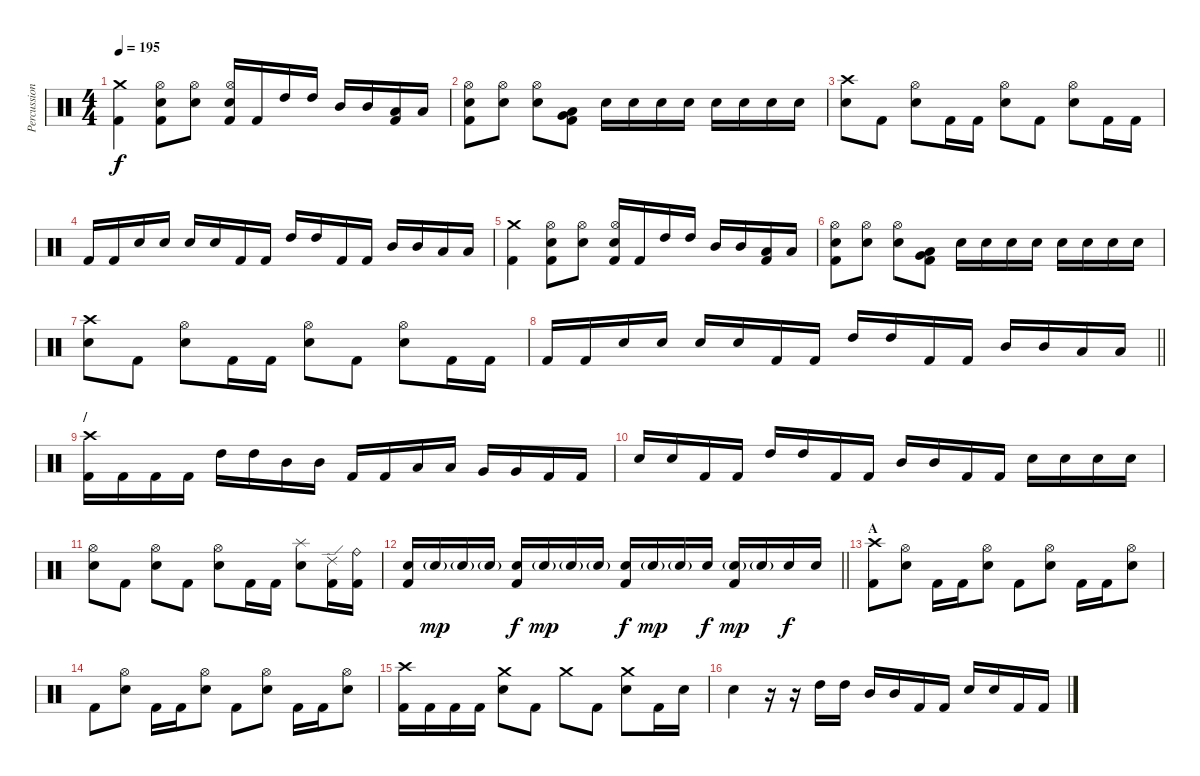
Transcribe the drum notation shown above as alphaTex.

\track ("Percussion" "Percussion") {instrument percussion}
\staff {score}
\articulation defaults
\ts (4 4)
\tempo 195
\clef neutral
\ks c
("Crash medium (hit)" "Kick (hit) 2").4{dy f} ("Hi-Hat (open)" "Electric Snare (hit)" "Kick (hit) 2").8 ("Hi-Hat (open)" "Electric Snare (hit)").8 ("Hi-Hat (open)" "Electric Snare (hit)" "Kick (hit) 2").16 "Kick (hit) 2".16 "High Tom (hit)".16 "High Tom (hit)".16 "Mid Tom (hit)".16 "Mid Tom (hit)".16 ("Low Tom (hit)" "Kick (hit) 2").16 "Low Tom (hit)".16 |
("Hi-Hat (open)" "Electric Snare (hit)" "Kick (hit) 2").8 ("Hi-Hat (open)" "Electric Snare (hit)").8 ("Hi-Hat (open)" "Electric Snare (hit)").8 ("Very Low Tom (hit)" "Low Floor Tom (hit)" "Kick (hit) 2").8 "Electric Snare (hit)".16 "Electric Snare (hit)".16 "Electric Snare (hit)".16 "Electric Snare (hit)".16 "Electric Snare (hit)".16 "Electric Snare (hit)".16 "Electric Snare (hit)".16 "Electric Snare (hit)".16 |
("Crash high (hit)" "Electric Snare (hit)").8 "Kick (hit) 2".8 ("Hi-Hat (open)" "Electric Snare (hit)").8 "Kick (hit) 2".16 "Kick (hit) 2".16 ("Hi-Hat (open)" "Electric Snare (hit)").8 "Kick (hit) 2".8 ("Hi-Hat (open)" "Electric Snare (hit)").8 "Kick (hit) 2".16 "Kick (hit) 2".16 |
"Kick (hit) 2".16 "Kick (hit) 2".16 "Electric Snare (hit)".16 "Electric Snare (hit)".16 "Electric Snare (hit)".16 "Electric Snare (hit)".16 "Kick (hit) 2".16 "Kick (hit) 2".16 "High Tom (hit)".16 "High Tom (hit)".16 "Kick (hit) 2".16 "Kick (hit) 2".16 "Mid Tom (hit)".16 "Mid Tom (hit)".16 "Low Tom (hit)".16 "Low Tom (hit)".16 |
("Crash medium (hit)" "Kick (hit) 2").4 ("Hi-Hat (open)" "Electric Snare (hit)" "Kick (hit) 2").8 ("Hi-Hat (open)" "Electric Snare (hit)").8 ("Hi-Hat (open)" "Electric Snare (hit)" "Kick (hit) 2").16 "Kick (hit) 2".16 "High Tom (hit)".16 "High Tom (hit)".16 "Mid Tom (hit)".16 "Mid Tom (hit)".16 ("Low Tom (hit)" "Kick (hit) 2").16 "Low Tom (hit)".16 |
("Hi-Hat (open)" "Electric Snare (hit)" "Kick (hit) 2").8 ("Hi-Hat (open)" "Electric Snare (hit)").8 ("Hi-Hat (open)" "Electric Snare (hit)").8 ("Very Low Tom (hit)" "Low Floor Tom (hit)" "Kick (hit) 2").8 "Electric Snare (hit)".16 "Electric Snare (hit)".16 "Electric Snare (hit)".16 "Electric Snare (hit)".16 "Electric Snare (hit)".16 "Electric Snare (hit)".16 "Electric Snare (hit)".16 "Electric Snare (hit)".16 |
("Crash high (hit)" "Electric Snare (hit)").8 "Kick (hit) 2".8 ("Hi-Hat (open)" "Electric Snare (hit)").8 "Kick (hit) 2".16 "Kick (hit) 2".16 ("Hi-Hat (open)" "Electric Snare (hit)").8 "Kick (hit) 2".8 ("Hi-Hat (open)" "Electric Snare (hit)").8 "Kick (hit) 2".16 "Kick (hit) 2".16 |
\barLineRight lightlight "Kick (hit) 2".16 "Kick (hit) 2".16 "Electric Snare (hit)".16 "Electric Snare (hit)".16 "Electric Snare (hit)".16 "Electric Snare (hit)".16 "Kick (hit) 2".16 "Kick (hit) 2".16 "High Tom (hit)".16 "High Tom (hit)".16 "Kick (hit) 2".16 "Kick (hit) 2".16 "Mid Tom (hit)".16 "Mid Tom (hit)".16 "Low Tom (hit)".16 "Low Tom (hit)".16
|
\section ("" "/")
("Crash high (hit)" "Kick (hit) 2").16 "Kick (hit) 2".16 "Kick (hit) 2".16 "Kick (hit) 2".16 "High Tom (hit)".16 "High Tom (hit)".16 "Mid Tom (hit)".16 "Mid Tom (hit)".16 "Kick (hit) 2".16 "Kick (hit) 2".16 "Low Tom (hit)".16 "Low Tom (hit)".16 "Very Low Tom (hit)".16 "Very Low Tom (hit)".16 "Kick (hit) 2".16 "Kick (hit) 2".16 |
"Electric Snare (hit)".16 "Electric Snare (hit)".16 "Kick (hit) 2".16 "Kick (hit) 2".16 "High Tom (hit)".16 "High Tom (hit)".16 "Kick (hit) 2".16 "Kick (hit) 2".16 "Mid Tom (hit)".16 "Mid Tom (hit)".16 "Kick (hit) 2".16 "Kick (hit) 2".16 "Electric Snare (hit)".16 "Electric Snare (hit)".16 "Electric Snare (hit)".16 "Electric Snare (hit)".16 |
("Hi-Hat (open)" "Electric Snare (hit)").8 "Kick (hit) 2".8 ("Hi-Hat (open)" "Electric Snare (hit)").8 "Kick (hit) 2".8 ("Hi-Hat (open)" "Electric Snare (hit)").8 "Kick (hit) 2".16 "Kick (hit) 2".16 ("Splash (hit)" "Electric Snare (hit)").8 ("Ride (edge) 2" "Kick (hit) 2").16 ("Ride (bell)" "Kick (hit) 2").16 |
\barLineRight lightlight
("Electric Snare (hit)" "Kick (hit) 2").16 "Electric Snare (hit)"{g}.16{dy mp} "Electric Snare (hit)"{g}.16 "Electric Snare (hit)"{g}.16 ("Electric Snare (hit)" "Kick (hit) 2").16{dy f} "Electric Snare (hit)"{g}.16{dy mp} "Electric Snare (hit)"{g}.16 "Electric Snare (hit)"{g}.16 ("Electric Snare (hit)" "Kick (hit) 2").16{dy f} "Electric Snare (hit)"{g}.16{dy mp} "Electric Snare (hit)"{g}.16 "Electric Snare (hit)".16{dy f} ("Electric Snare (hit)"{g} "Kick (hit) 2").16{dy mp} "Electric Snare (hit)"{g}.16 "Electric Snare (hit)".16{dy f} "Electric Snare (hit)".16 |
\section ("" "A")
("Crash high (hit)" "Kick (hit) 2").8 ("Hi-Hat (open)" "Electric Snare (hit)").8 "Kick (hit) 2".16 "Kick (hit) 2".16 ("Hi-Hat (open)" "Electric Snare (hit)").8 "Kick (hit) 2".8 ("Hi-Hat (open)" "Electric Snare (hit)").8 "Kick (hit) 2".16 "Kick (hit) 2".16 ("Hi-Hat (open)" "Electric Snare (hit)").8 |
"Kick (hit) 2".8 ("Hi-Hat (open)" "Electric Snare (hit)").8 "Kick (hit) 2".16 "Kick (hit) 2".16 ("Hi-Hat (open)" "Electric Snare (hit)").8 "Kick (hit) 2".8 ("Hi-Hat (open)" "Electric Snare (hit)").8 "Kick (hit) 2".16 "Kick (hit) 2".16 ("Hi-Hat (open)" "Electric Snare (hit)").8 |
("Crash high (hit)" "Kick (hit) 2").16 "Kick (hit) 2".16 "Kick (hit) 2".16 "Kick (hit) 2".16 ("Crash medium (hit)" "Electric Snare (hit)").8 "Kick (hit) 2".8 "Crash medium (hit)".8 "Kick (hit) 2".8 ("Crash medium (hit)" "Electric Snare (hit)").8 "Kick (hit) 2".16 "Electric Snare (hit)".16 |
"Electric Snare (hit)".4 r.16 r.16 "High Tom (hit)".16 "High Tom (hit)".16 "Mid Tom (hit)".16 "Mid Tom (hit)".16 "Kick (hit) 2".16 "Kick (hit) 2".16 "Electric Snare (hit)".16 "Electric Snare (hit)".16 "Kick (hit) 2".16 "Kick (hit) 2".16
